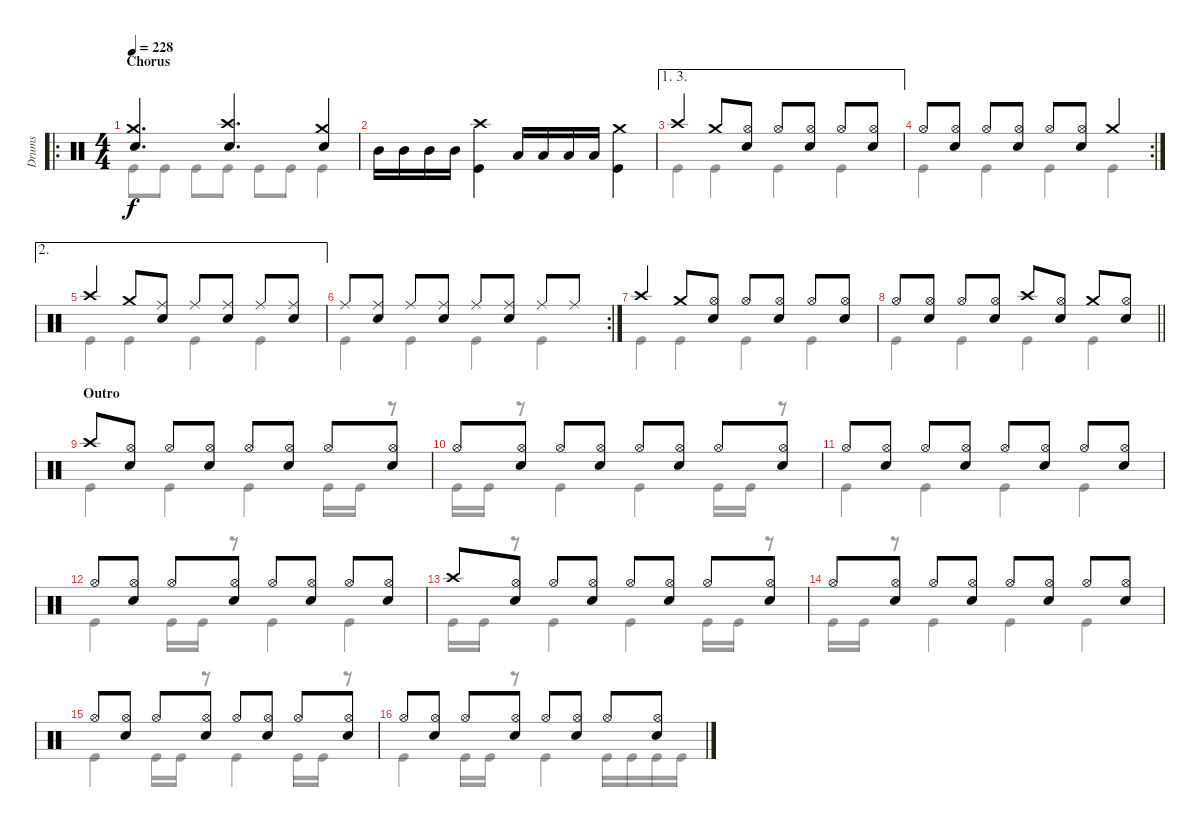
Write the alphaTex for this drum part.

\track ("Drums" "Drums") {instrument percussion}
\staff {score}
\articulation defaults
\voice
\ro
\ts (4 4)
\section ("" "Chorus")
\tempo 228
\clef neutral
\ks c
("Crash medium (hit)" "Snare (hit) 2").4{d dy f} ("Crash high (hit)" "Snare (hit) 2").4{d} ("Crash medium (hit)" "Snare (hit) 2").4 |
"Mid Tom (hit)".16 "Mid Tom (hit)".16 "Mid Tom (hit)".16 "Mid Tom (hit)".16 ("Crash high (hit)" "Kick (hit)").4 "Low Floor Tom (hit)".16 "Low Floor Tom (hit)".16 "Low Floor Tom (hit)".16 "Low Floor Tom (hit)".16 ("Crash medium (hit)" "Kick (hit)").4 |
\ae (1 3)
"Crash high (hit)".4 "Crash medium (hit)".8 ("Hi-Hat (open)" "Snare (hit) 2").8 "Hi-Hat (open)".8 ("Hi-Hat (open)" "Snare (hit) 2").8 "Hi-Hat (open)".8 ("Hi-Hat (open)" "Snare (hit) 2").8 |
\rc 2 "Hi-Hat (open)".8
("Hi-Hat (open)" "Snare (hit) 2").8 "Hi-Hat (open)".8 ("Hi-Hat (open)" "Snare (hit) 2").8 "Hi-Hat (open)".8 ("Hi-Hat (open)" "Snare (hit) 2").8 "Crash medium (hit)".4 |
\ae 2 "Crash high (hit)".4 "Crash medium (hit)".8
("Ride (middle)" "Snare (hit) 2").8 "Ride (middle)".8 ("Ride (middle)" "Snare (hit) 2").8 "Ride (middle)".8 ("Ride (middle)" "Snare (hit) 2").8 |
\rc 2 "Ride (middle)".8
("Ride (middle)" "Snare (hit) 2").8 "Ride (middle)".8 ("Ride (middle)" "Snare (hit) 2").8 "Ride (middle)".8 ("Ride (middle)" "Snare (hit) 2").8 "Ride (middle)".8 "Ride (middle)".8 |
"Crash high (hit)".4 "Crash medium (hit)".8 ("Hi-Hat (open)" "Snare (hit) 2").8 "Hi-Hat (open)".8 ("Hi-Hat (open)" "Snare (hit) 2").8 "Hi-Hat (open)".8 ("Hi-Hat (open)" "Snare (hit) 2").8 |
\barLineRight lightlight "Hi-Hat (open)".8
("Hi-Hat (open)" "Snare (hit) 2").8 "Hi-Hat (open)".8 ("Hi-Hat (open)" "Snare (hit) 2").8 "Crash high (hit)".8 ("Hi-Hat (open)" "Snare (hit) 2").8 "Crash medium (hit)".8 ("Hi-Hat (open)" "Snare (hit) 2").8 |
\section ("" "Outro")
"Crash high (hit)".8 ("Hi-Hat (open)" "Snare (hit) 2").8 "Hi-Hat (open)".8 ("Hi-Hat (open)" "Snare (hit) 2").8 "Hi-Hat (open)".8 ("Hi-Hat (open)" "Snare (hit) 2").8 "Hi-Hat (open)".8 ("Hi-Hat (open)" "Snare (hit) 2").8 |
"Hi-Hat (open)".8 ("Hi-Hat (open)" "Snare (hit) 2").8 "Hi-Hat (open)".8 ("Hi-Hat (open)" "Snare (hit) 2").8 "Hi-Hat (open)".8 ("Hi-Hat (open)" "Snare (hit) 2").8 "Hi-Hat (open)".8 ("Hi-Hat (open)" "Snare (hit) 2").8 |
"Hi-Hat (open)".8 ("Hi-Hat (open)" "Snare (hit) 2").8 "Hi-Hat (open)".8 ("Hi-Hat (open)" "Snare (hit) 2").8 "Hi-Hat (open)".8 ("Hi-Hat (open)" "Snare (hit) 2").8 "Hi-Hat (open)".8 ("Hi-Hat (open)" "Snare (hit) 2").8 |
"Hi-Hat (open)".8 ("Hi-Hat (open)" "Snare (hit) 2").8 "Hi-Hat (open)".8 ("Hi-Hat (open)" "Snare (hit) 2").8 "Hi-Hat (open)".8 ("Hi-Hat (open)" "Snare (hit) 2").8 "Hi-Hat (open)".8 ("Hi-Hat (open)" "Snare (hit) 2").8 |
"Crash high (hit)".8 ("Hi-Hat (open)" "Snare (hit) 2").8 "Hi-Hat (open)".8 ("Hi-Hat (open)" "Snare (hit) 2").8 "Hi-Hat (open)".8 ("Hi-Hat (open)" "Snare (hit) 2").8 "Hi-Hat (open)".8 ("Hi-Hat (open)" "Snare (hit) 2").8 |
"Hi-Hat (open)".8 ("Hi-Hat (open)" "Snare (hit) 2").8 "Hi-Hat (open)".8 ("Hi-Hat (open)" "Snare (hit) 2").8 "Hi-Hat (open)".8 ("Hi-Hat (open)" "Snare (hit) 2").8 "Hi-Hat (open)".8 ("Hi-Hat (open)" "Snare (hit) 2").8 |
"Hi-Hat (open)".8 ("Hi-Hat (open)" "Snare (hit) 2").8 "Hi-Hat (open)".8 ("Hi-Hat (open)" "Snare (hit) 2").8 "Hi-Hat (open)".8 ("Hi-Hat (open)" "Snare (hit) 2").8 "Hi-Hat (open)".8 ("Hi-Hat (open)" "Snare (hit) 2").8 |
"Hi-Hat (open)".8 ("Hi-Hat (open)" "Snare (hit) 2").8 "Hi-Hat (open)".8 ("Hi-Hat (open)" "Snare (hit) 2").8 "Hi-Hat (open)".8 ("Hi-Hat (open)" "Snare (hit) 2").8 "Hi-Hat (open)".8 ("Hi-Hat (open)" "Snare (hit) 2").8
\voice
\clef neutral
\ottava regular
\simile none
\ks c "Kick (hit)".8{dy f} "Kick (hit)".8 "Kick (hit)".8 "Kick (hit)".8 "Kick (hit)".8 "Kick (hit)".8 "Kick (hit)".4
|
|
"Kick (hit)".4 "Kick (hit)".4 "Kick (hit)".4 "Kick (hit)".4 |
"Kick (hit)".4 "Kick (hit)".4 "Kick (hit)".4 "Kick (hit)".4 |
"Kick (hit)".4 "Kick (hit)".4 "Kick (hit)".4 "Kick (hit)".4 |
"Kick (hit)".4 "Kick (hit)".4 "Kick (hit)".4 "Kick (hit)".4 |
"Kick (hit)".4 "Kick (hit)".4 "Kick (hit)".4 "Kick (hit)".4 |
\barLineRight lightlight "Kick (hit)".4 "Kick (hit)".4 "Kick (hit)".4 "Kick (hit)".4
|
"Kick (hit)".4 "Kick (hit)".4 "Kick (hit)".4 "Kick (hit)".16 "Kick (hit)".16 r.8 |
"Kick (hit)".16 "Kick (hit)".16 r.8 "Kick (hit)".4 "Kick (hit)".4 "Kick (hit)".16 "Kick (hit)".16 r.8 |
"Kick (hit)".4 "Kick (hit)".4 "Kick (hit)".4 "Kick (hit)".4 |
"Kick (hit)".4 "Kick (hit)".16 "Kick (hit)".16 r.8 "Kick (hit)".4 "Kick (hit)".4 |
"Kick (hit)".16 "Kick (hit)".16 r.8 "Kick (hit)".4 "Kick (hit)".4 "Kick (hit)".16 "Kick (hit)".16 r.8 |
"Kick (hit)".16 "Kick (hit)".16 r.8 "Kick (hit)".4 "Kick (hit)".4 "Kick (hit)".4 |
"Kick (hit)".4 "Kick (hit)".16 "Kick (hit)".16 r.8 "Kick (hit)".4 "Kick (hit)".16 "Kick (hit)".16 r.8 |
"Kick (hit)".4 "Kick (hit)".16 "Kick (hit)".16 r.8 "Kick (hit)".4 "Kick (hit)".16 "Kick (hit)".16 "Kick (hit)".16 "Kick (hit)".16
